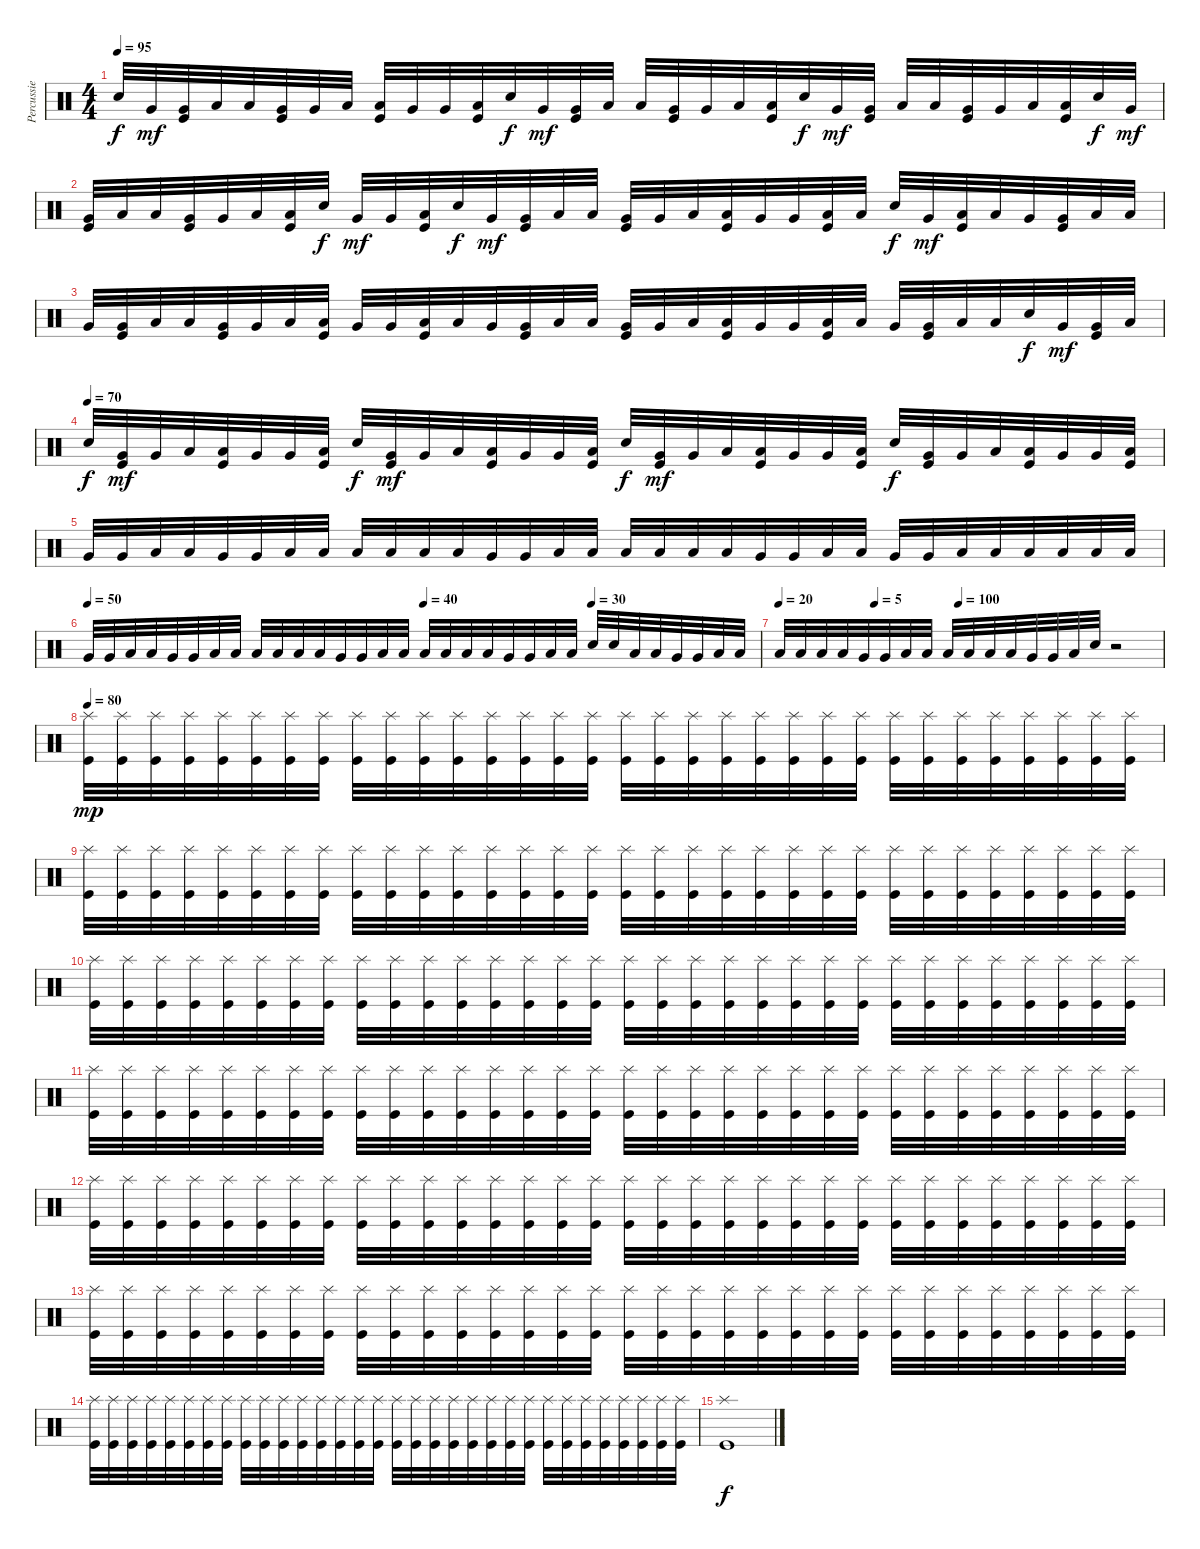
\track ("Percussie" "Percussie") {instrument percussion}
\staff {score}
\articulation defaults
\ts (4 4)
\tempo 95
\clef neutral
\ks c "Electric Snare (hit)"{tr (40 64)}.32{dy f} "Very Low Tom (hit)".32{dy mf}
("Kick (hit)" "Very Low Tom (hit)").32 "Low Floor Tom (hit)".32 "Low Floor Tom (hit)".32 ("Kick (hit)" "Very Low Tom (hit)").32 "Very Low Tom (hit)".32 "Low Floor Tom (hit)".32 ("Kick (hit)" "Low Floor Tom (hit)").32 "Very Low Tom (hit)".32 "Very Low Tom (hit)".32 ("Kick (hit)" "Low Floor Tom (hit)").32 "Electric Snare (hit)"{tr (40 64)}.32{dy f} "Very Low Tom (hit)".32{dy mf} ("Kick (hit)" "Very Low Tom (hit)").32 "Low Floor Tom (hit)".32 "Low Floor Tom (hit)".32 ("Kick (hit)" "Very Low Tom (hit)").32 "Very Low Tom (hit)".32 "Low Floor Tom (hit)".32 ("Kick (hit)" "Low Floor Tom (hit)").32 "Electric Snare (hit)"{tr (40 64)}.32{dy f} "Very Low Tom (hit)".32{dy mf} ("Kick (hit)" "Very Low Tom (hit)").32 "Low Floor Tom (hit)".32 "Low Floor Tom (hit)".32 ("Kick (hit)" "Very Low Tom (hit)").32 "Very Low Tom (hit)".32 "Low Floor Tom (hit)".32 ("Kick (hit)" "Low Floor Tom (hit)").32 "Electric Snare (hit)"{tr (40 64)}.32{dy f} "Very Low Tom (hit)".32{dy mf} |
("Kick (hit)" "Very Low Tom (hit)").32 "Low Floor Tom (hit)".32 "Low Floor Tom (hit)".32 ("Kick (hit)" "Very Low Tom (hit)").32 "Very Low Tom (hit)".32 "Low Floor Tom (hit)".32 ("Kick (hit)" "Low Floor Tom (hit)").32 "Electric Snare (hit)"{tr (40 64)}.32{dy f} "Very Low Tom (hit)".32{dy mf} "Very Low Tom (hit)".32 ("Kick (hit)" "Low Floor Tom (hit)").32 "Electric Snare (hit)"{tr (40 64)}.32{dy f} "Very Low Tom (hit)".32{dy mf} ("Kick (hit)" "Very Low Tom (hit)").32 "Low Floor Tom (hit)".32 "Low Floor Tom (hit)".32 ("Kick (hit)" "Very Low Tom (hit)").32 "Very Low Tom (hit)".32 "Low Floor Tom (hit)".32 ("Kick (hit)" "Low Floor Tom (hit)").32 "Very Low Tom (hit)".32 "Very Low Tom (hit)".32 ("Kick (hit)" "Low Floor Tom (hit)").32 "Low Floor Tom (hit)".32 "Electric Snare (hit)"{tr (40 64)}.32{dy f} "Very Low Tom (hit)".32{dy mf} ("Kick (hit)" "Low Floor Tom (hit)").32 "Low Floor Tom (hit)".32 "Very Low Tom (hit)".32 ("Kick (hit)" "Very Low Tom (hit)").32 "Low Floor Tom (hit)".32 "Low Floor Tom (hit)".32 |
"Very Low Tom (hit)".32 ("Kick (hit)" "Very Low Tom (hit)").32 "Low Floor Tom (hit)".32 "Low Floor Tom (hit)".32 ("Kick (hit)" "Very Low Tom (hit)").32 "Very Low Tom (hit)".32 "Low Floor Tom (hit)".32 ("Kick (hit)" "Low Floor Tom (hit)").32 "Very Low Tom (hit)".32 "Very Low Tom (hit)".32 ("Kick (hit)" "Low Floor Tom (hit)").32 "Low Floor Tom (hit)".32 "Very Low Tom (hit)".32 ("Kick (hit)" "Very Low Tom (hit)").32 "Low Floor Tom (hit)".32 "Low Floor Tom (hit)".32 ("Kick (hit)" "Very Low Tom (hit)").32 "Very Low Tom (hit)".32 "Low Floor Tom (hit)".32 ("Kick (hit)" "Low Floor Tom (hit)").32 "Very Low Tom (hit)".32 "Very Low Tom (hit)".32 ("Kick (hit)" "Low Floor Tom (hit)").32 "Low Floor Tom (hit)".32 "Very Low Tom (hit)".32 ("Kick (hit)" "Very Low Tom (hit)").32 "Low Floor Tom (hit)".32 "Low Floor Tom (hit)".32 "Electric Snare (hit)"{tr (40 64)}.32{dy f} "Very Low Tom (hit)".32{dy mf} ("Kick (hit)" "Very Low Tom (hit)").32 "Low Floor Tom (hit)".32 |
\tempo (70)
"Electric Snare (hit)"{tr (40 64)}.32{dy f} ("Kick (hit)" "Very Low Tom (hit)").32{dy mf} "Very Low Tom (hit)".32 "Low Floor Tom (hit)".32 ("Kick (hit)" "Low Floor Tom (hit)").32 "Very Low Tom (hit)".32 "Very Low Tom (hit)".32 ("Kick (hit)" "Low Floor Tom (hit)").32 "Electric Snare (hit)"{tr (40 64)}.32{dy f} ("Kick (hit)" "Very Low Tom (hit)").32{dy mf} "Very Low Tom (hit)".32 "Low Floor Tom (hit)".32 ("Kick (hit)" "Low Floor Tom (hit)").32 "Very Low Tom (hit)".32 "Very Low Tom (hit)".32 ("Kick (hit)" "Low Floor Tom (hit)").32 "Electric Snare (hit)"{tr (40 64)}.32{dy f} ("Kick (hit)" "Very Low Tom (hit)").32{dy mf} "Very Low Tom (hit)".32 "Low Floor Tom (hit)".32 ("Kick (hit)" "Low Floor Tom (hit)").32 "Very Low Tom (hit)".32 "Very Low Tom (hit)".32 ("Kick (hit)" "Low Floor Tom (hit)").32 "Electric Snare (hit)"{tr (40 64)}.32{dy f} ("Kick (hit)" "Very Low Tom (hit)").32 "Very Low Tom (hit)".32 "Low Floor Tom (hit)".32 ("Kick (hit)" "Low Floor Tom (hit)").32 "Very Low Tom (hit)".32 "Very Low Tom (hit)".32 ("Kick (hit)" "Low Floor Tom (hit)").32 |
"Very Low Tom (hit)".32 "Very Low Tom (hit)".32 "Low Floor Tom (hit)".32 "Low Floor Tom (hit)".32 "Very Low Tom (hit)".32 "Very Low Tom (hit)".32 "Low Floor Tom (hit)".32 "Low Floor Tom (hit)".32 "Low Tom (hit)".32 "Low Tom (hit)".32 "Low Floor Tom (hit)".32 "Low Floor Tom (hit)".32 "Very Low Tom (hit)".32 "Very Low Tom (hit)".32 "Low Floor Tom (hit)".32 "Low Floor Tom (hit)".32 "Low Tom (hit)".32 "Low Tom (hit)".32 "Low Floor Tom (hit)".32 "Low Floor Tom (hit)".32 "Very Low Tom (hit)".32 "Very Low Tom (hit)".32 "Low Floor Tom (hit)".32 "Low Floor Tom (hit)".32 "Very Low Tom (hit)".32 "Very Low Tom (hit)".32 "Low Floor Tom (hit)".32 "Low Floor Tom (hit)".32 "Low Tom (hit)".32 "Low Tom (hit)".32 "Low Floor Tom (hit)".32 "Low Floor Tom (hit)".32 |
\tempo 50
\tempo (40 0.5)
\tempo (30 0.75)
"Very Low Tom (hit)".32 "Very Low Tom (hit)".32 "Low Floor Tom (hit)".32 "Low Floor Tom (hit)".32 "Very Low Tom (hit)".32 "Very Low Tom (hit)".32 "Low Floor Tom (hit)".32 "Low Floor Tom (hit)".32 "Low Tom (hit)".32 "Low Tom (hit)".32 "Low Floor Tom (hit)".32 "Low Floor Tom (hit)".32 "Very Low Tom (hit)".32 "Very Low Tom (hit)".32 "Low Floor Tom (hit)".32 "Low Floor Tom (hit)".32 "Low Tom (hit)".32 "Low Tom (hit)".32 "Low Floor Tom (hit)".32 "Low Floor Tom (hit)".32 "Very Low Tom (hit)".32 "Very Low Tom (hit)".32 "Low Floor Tom (hit)".32 "Low Floor Tom (hit)".32 "Electric Snare (hit)".32 "Electric Snare (hit)".32 "Low Floor Tom (hit)".32 "Low Floor Tom (hit)".32 "Very Low Tom (hit)".32 "Very Low Tom (hit)".32 "Low Floor Tom (hit)".32 "Low Floor Tom (hit)".32 |
\tempo 20
\tempo (5 0.25)
\tempo (100 0.46875)
"Low Tom (hit)".32 "Low Tom (hit)".32 "Low Floor Tom (hit)".32 "Low Floor Tom (hit)".32 "Very Low Tom (hit)".32 "Very Low Tom (hit)".32 "Low Floor Tom (hit)".32 "Low Floor Tom (hit)".32 "Low Tom (hit)".32 "Low Tom (hit)".32 "Low Floor Tom (hit)".32 "Low Floor Tom (hit)".32 "Very Low Tom (hit)".32 "Very Low Tom (hit)".32 "Low Floor Tom (hit)".32 "Electric Snare (hit)".32 r.2 |
\tempo 80
("Splash (hit)" "Kick (hit)").32{dy mp} ("Splash (hit)" "Kick (hit)").32 ("Splash (hit)" "Kick (hit)").32 ("Splash (hit)" "Kick (hit)").32 ("Splash (hit)" "Kick (hit)").32 ("Splash (hit)" "Kick (hit)").32 ("Splash (hit)" "Kick (hit)").32 ("Splash (hit)" "Kick (hit)").32 ("Splash (hit)" "Kick (hit)").32 ("Splash (hit)" "Kick (hit)").32 ("Splash (hit)" "Kick (hit)").32 ("Splash (hit)" "Kick (hit)").32 ("Splash (hit)" "Kick (hit)").32 ("Splash (hit)" "Kick (hit)").32 ("Splash (hit)" "Kick (hit)").32 ("Splash (hit)" "Kick (hit)").32 ("Splash (hit)" "Kick (hit)").32 ("Splash (hit)" "Kick (hit)").32 ("Splash (hit)" "Kick (hit)").32 ("Splash (hit)" "Kick (hit)").32 ("Splash (hit)" "Kick (hit)").32 ("Splash (hit)" "Kick (hit)").32 ("Splash (hit)" "Kick (hit)").32 ("Splash (hit)" "Kick (hit)").32 ("Splash (hit)" "Kick (hit)").32 ("Splash (hit)" "Kick (hit)").32 ("Splash (hit)" "Kick (hit)").32 ("Splash (hit)" "Kick (hit)").32 ("Splash (hit)" "Kick (hit)").32 ("Splash (hit)" "Kick (hit)").32 ("Splash (hit)" "Kick (hit)").32 ("Splash (hit)" "Kick (hit)").32 |
("Splash (hit)" "Kick (hit)").32 ("Splash (hit)" "Kick (hit)").32 ("Splash (hit)" "Kick (hit)").32 ("Splash (hit)" "Kick (hit)").32 ("Splash (hit)" "Kick (hit)").32 ("Splash (hit)" "Kick (hit)").32 ("Splash (hit)" "Kick (hit)").32 ("Splash (hit)" "Kick (hit)").32 ("Splash (hit)" "Kick (hit)").32 ("Splash (hit)" "Kick (hit)").32 ("Splash (hit)" "Kick (hit)").32 ("Splash (hit)" "Kick (hit)").32 ("Splash (hit)" "Kick (hit)").32 ("Splash (hit)" "Kick (hit)").32 ("Splash (hit)" "Kick (hit)").32 ("Splash (hit)" "Kick (hit)").32 ("Splash (hit)" "Kick (hit)").32 ("Splash (hit)" "Kick (hit)").32 ("Splash (hit)" "Kick (hit)").32 ("Splash (hit)" "Kick (hit)").32 ("Splash (hit)" "Kick (hit)").32 ("Splash (hit)" "Kick (hit)").32 ("Splash (hit)" "Kick (hit)").32 ("Splash (hit)" "Kick (hit)").32 ("Splash (hit)" "Kick (hit)").32 ("Splash (hit)" "Kick (hit)").32 ("Splash (hit)" "Kick (hit)").32 ("Splash (hit)" "Kick (hit)").32 ("Splash (hit)" "Kick (hit)").32 ("Splash (hit)" "Kick (hit)").32 ("Splash (hit)" "Kick (hit)").32 ("Splash (hit)" "Kick (hit)").32 |
("Splash (hit)" "Kick (hit)").32 ("Splash (hit)" "Kick (hit)").32 ("Splash (hit)" "Kick (hit)").32 ("Splash (hit)" "Kick (hit)").32 ("Splash (hit)" "Kick (hit)").32 ("Splash (hit)" "Kick (hit)").32 ("Splash (hit)" "Kick (hit)").32 ("Splash (hit)" "Kick (hit)").32 ("Splash (hit)" "Kick (hit)").32 ("Splash (hit)" "Kick (hit)").32 ("Splash (hit)" "Kick (hit)").32 ("Splash (hit)" "Kick (hit)").32 ("Splash (hit)" "Kick (hit)").32 ("Splash (hit)" "Kick (hit)").32 ("Splash (hit)" "Kick (hit)").32 ("Splash (hit)" "Kick (hit)").32 ("Splash (hit)" "Kick (hit)").32 ("Splash (hit)" "Kick (hit)").32 ("Splash (hit)" "Kick (hit)").32 ("Splash (hit)" "Kick (hit)").32 ("Splash (hit)" "Kick (hit)").32 ("Splash (hit)" "Kick (hit)").32 ("Splash (hit)" "Kick (hit)").32 ("Splash (hit)" "Kick (hit)").32 ("Splash (hit)" "Kick (hit)").32 ("Splash (hit)" "Kick (hit)").32 ("Splash (hit)" "Kick (hit)").32 ("Splash (hit)" "Kick (hit)").32 ("Splash (hit)" "Kick (hit)").32 ("Splash (hit)" "Kick (hit)").32 ("Splash (hit)" "Kick (hit)").32 ("Splash (hit)" "Kick (hit)").32 |
("Splash (hit)" "Kick (hit)").32 ("Splash (hit)" "Kick (hit)").32 ("Splash (hit)" "Kick (hit)").32 ("Splash (hit)" "Kick (hit)").32 ("Splash (hit)" "Kick (hit)").32 ("Splash (hit)" "Kick (hit)").32 ("Splash (hit)" "Kick (hit)").32 ("Splash (hit)" "Kick (hit)").32 ("Splash (hit)" "Kick (hit)").32 ("Splash (hit)" "Kick (hit)").32 ("Splash (hit)" "Kick (hit)").32 ("Splash (hit)" "Kick (hit)").32 ("Splash (hit)" "Kick (hit)").32 ("Splash (hit)" "Kick (hit)").32 ("Splash (hit)" "Kick (hit)").32 ("Splash (hit)" "Kick (hit)").32 ("Splash (hit)" "Kick (hit)").32 ("Splash (hit)" "Kick (hit)").32 ("Splash (hit)" "Kick (hit)").32 ("Splash (hit)" "Kick (hit)").32 ("Splash (hit)" "Kick (hit)").32 ("Splash (hit)" "Kick (hit)").32 ("Splash (hit)" "Kick (hit)").32 ("Splash (hit)" "Kick (hit)").32 ("Splash (hit)" "Kick (hit)").32 ("Splash (hit)" "Kick (hit)").32 ("Splash (hit)" "Kick (hit)").32 ("Splash (hit)" "Kick (hit)").32 ("Splash (hit)" "Kick (hit)").32 ("Splash (hit)" "Kick (hit)").32 ("Splash (hit)" "Kick (hit)").32 ("Splash (hit)" "Kick (hit)").32 |
("Splash (hit)" "Kick (hit)").32 ("Splash (hit)" "Kick (hit)").32 ("Splash (hit)" "Kick (hit)").32 ("Splash (hit)" "Kick (hit)").32 ("Splash (hit)" "Kick (hit)").32 ("Splash (hit)" "Kick (hit)").32 ("Splash (hit)" "Kick (hit)").32 ("Splash (hit)" "Kick (hit)").32 ("Splash (hit)" "Kick (hit)").32 ("Splash (hit)" "Kick (hit)").32 ("Splash (hit)" "Kick (hit)").32 ("Splash (hit)" "Kick (hit)").32 ("Splash (hit)" "Kick (hit)").32 ("Splash (hit)" "Kick (hit)").32 ("Splash (hit)" "Kick (hit)").32 ("Splash (hit)" "Kick (hit)").32 ("Splash (hit)" "Kick (hit)").32 ("Splash (hit)" "Kick (hit)").32 ("Splash (hit)" "Kick (hit)").32 ("Splash (hit)" "Kick (hit)").32 ("Splash (hit)" "Kick (hit)").32 ("Splash (hit)" "Kick (hit)").32 ("Splash (hit)" "Kick (hit)").32 ("Splash (hit)" "Kick (hit)").32 ("Splash (hit)" "Kick (hit)").32 ("Splash (hit)" "Kick (hit)").32 ("Splash (hit)" "Kick (hit)").32 ("Splash (hit)" "Kick (hit)").32 ("Splash (hit)" "Kick (hit)").32 ("Splash (hit)" "Kick (hit)").32 ("Splash (hit)" "Kick (hit)").32 ("Splash (hit)" "Kick (hit)").32 |
("Splash (hit)" "Kick (hit)").32 ("Splash (hit)" "Kick (hit)").32 ("Splash (hit)" "Kick (hit)").32 ("Splash (hit)" "Kick (hit)").32 ("Splash (hit)" "Kick (hit)").32 ("Splash (hit)" "Kick (hit)").32 ("Splash (hit)" "Kick (hit)").32 ("Splash (hit)" "Kick (hit)").32 ("Splash (hit)" "Kick (hit)").32 ("Splash (hit)" "Kick (hit)").32 ("Splash (hit)" "Kick (hit)").32 ("Splash (hit)" "Kick (hit)").32 ("Splash (hit)" "Kick (hit)").32 ("Splash (hit)" "Kick (hit)").32 ("Splash (hit)" "Kick (hit)").32 ("Splash (hit)" "Kick (hit)").32 ("Splash (hit)" "Kick (hit)").32 ("Splash (hit)" "Kick (hit)").32 ("Splash (hit)" "Kick (hit)").32 ("Splash (hit)" "Kick (hit)").32 ("Splash (hit)" "Kick (hit)").32 ("Splash (hit)" "Kick (hit)").32 ("Splash (hit)" "Kick (hit)").32 ("Splash (hit)" "Kick (hit)").32 ("Splash (hit)" "Kick (hit)").32 ("Splash (hit)" "Kick (hit)").32 ("Splash (hit)" "Kick (hit)").32 ("Splash (hit)" "Kick (hit)").32 ("Splash (hit)" "Kick (hit)").32 ("Splash (hit)" "Kick (hit)").32 ("Splash (hit)" "Kick (hit)").32 ("Splash (hit)" "Kick (hit)").32 |
("Splash (hit)" "Kick (hit)").32 ("Splash (hit)" "Kick (hit)").32 ("Splash (hit)" "Kick (hit)").32 ("Splash (hit)" "Kick (hit)").32 ("Splash (hit)" "Kick (hit)").32 ("Splash (hit)" "Kick (hit)").32 ("Splash (hit)" "Kick (hit)").32 ("Splash (hit)" "Kick (hit)").32 ("Splash (hit)" "Kick (hit)").32 ("Splash (hit)" "Kick (hit)").32 ("Splash (hit)" "Kick (hit)").32 ("Splash (hit)" "Kick (hit)").32 ("Splash (hit)" "Kick (hit)").32 ("Splash (hit)" "Kick (hit)").32 ("Splash (hit)" "Kick (hit)").32 ("Splash (hit)" "Kick (hit)").32 ("Splash (hit)" "Kick (hit)").32 ("Splash (hit)" "Kick (hit)").32 ("Splash (hit)" "Kick (hit)").32 ("Splash (hit)" "Kick (hit)").32 ("Splash (hit)" "Kick (hit)").32 ("Splash (hit)" "Kick (hit)").32 ("Splash (hit)" "Kick (hit)").32 ("Splash (hit)" "Kick (hit)").32 ("Splash (hit)" "Kick (hit)").32 ("Splash (hit)" "Kick (hit)").32 ("Splash (hit)" "Kick (hit)").32 ("Splash (hit)" "Kick (hit)").32 ("Splash (hit)" "Kick (hit)").32 ("Splash (hit)" "Kick (hit)").32 ("Splash (hit)" "Kick (hit)").32 ("Splash (hit)" "Kick (hit)").32 |
("Splash (hit)" "Kick (hit)").1{dy f}
